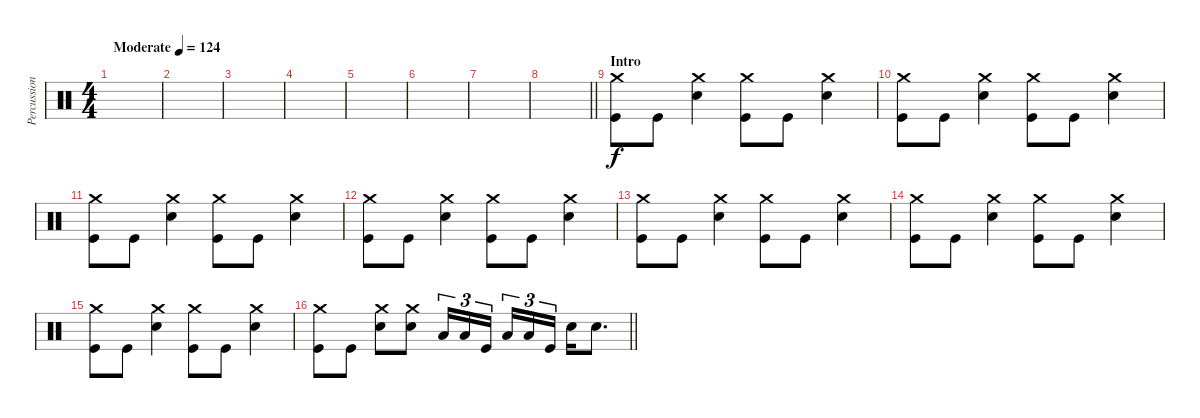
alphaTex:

\track ("Percussion" "Percussion") {instrument percussion}
\staff {score}
\articulation defaults
\ts (4 4)
\tempo (124 "Moderate")
\clef neutral
\ks c
|
|
|
|
|
|
|
\barLineRight lightlight
|
\section ("" "Intro")
("Crash medium (hit)" "Kick (hit)").8 "Kick (hit)".8 ("Crash medium (hit)" "Snare (hit) 2").4 ("Crash medium (hit)" "Kick (hit)").8 "Kick (hit)".8 ("Crash medium (hit)" "Snare (hit) 2").4 |
("Crash medium (hit)" "Kick (hit)").8 "Kick (hit)".8 ("Crash medium (hit)" "Snare (hit) 2").4 ("Crash medium (hit)" "Kick (hit)").8 "Kick (hit)".8 ("Crash medium (hit)" "Snare (hit) 2").4 |
("Crash medium (hit)" "Kick (hit)").8 "Kick (hit)".8 ("Crash medium (hit)" "Snare (hit) 2").4 ("Crash medium (hit)" "Kick (hit)").8 "Kick (hit)".8 ("Crash medium (hit)" "Snare (hit) 2").4 |
("Crash medium (hit)" "Kick (hit)").8 "Kick (hit)".8 ("Crash medium (hit)" "Snare (hit) 2").4 ("Crash medium (hit)" "Kick (hit)").8 "Kick (hit)".8 ("Crash medium (hit)" "Snare (hit) 2").4 |
("Crash medium (hit)" "Kick (hit)").8 "Kick (hit)".8 ("Crash medium (hit)" "Snare (hit) 2").4 ("Crash medium (hit)" "Kick (hit)").8 "Kick (hit)".8 ("Crash medium (hit)" "Snare (hit) 2").4 |
("Crash medium (hit)" "Kick (hit)").8 "Kick (hit)".8 ("Crash medium (hit)" "Snare (hit) 2").4 ("Crash medium (hit)" "Kick (hit)").8 "Kick (hit)".8 ("Crash medium (hit)" "Snare (hit) 2").4 |
("Crash medium (hit)" "Kick (hit)").8 "Kick (hit)".8 ("Crash medium (hit)" "Snare (hit) 2").4 ("Crash medium (hit)" "Kick (hit)").8 "Kick (hit)".8 ("Crash medium (hit)" "Snare (hit) 2").4 |
\barLineRight lightlight
("Crash medium (hit)" "Kick (hit)").8 "Kick (hit)".8 ("Crash medium (hit)" "Snare (hit) 2").8 ("Crash medium (hit)" "Snare (hit) 2").8 "Low Tom (hit)".16{tu (3 2)} "Low Floor Tom (hit)".16{tu (3 2)} "Kick (hit)".16{tu (3 2) beam splitsecondary} "Low Tom (hit)".16{tu (3 2)} "Low Floor Tom (hit)".16{tu (3 2)} "Kick (hit)".16{tu (3 2)} "Snare (hit) 2".16 "Snare (hit) 2".8{d}
